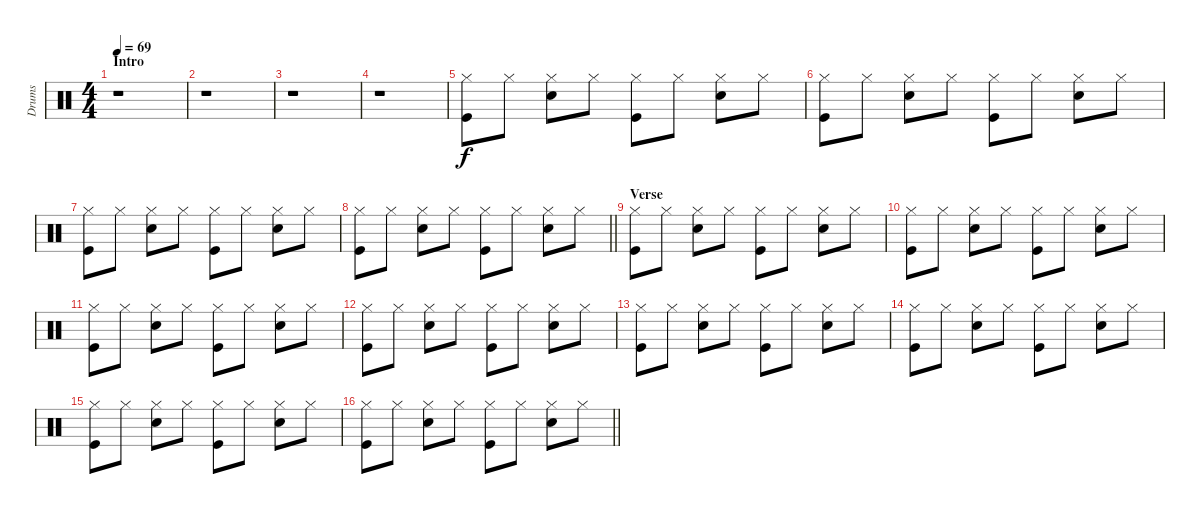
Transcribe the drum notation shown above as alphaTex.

\track ("Drums" "Drums") {instrument percussion}
\staff {score}
\articulation defaults
\ts (4 4)
\section ("" "Intro")
\tempo 69
\clef neutral
\ks c
r.1{dy f} |
r.1 |
r.1 |
r.1 |
("Hi-Hat (closed)" "Kick (hit)").8 "Hi-Hat (closed)".8 ("Hi-Hat (closed)" "Snare (hit) 2").8 "Hi-Hat (closed)".8 ("Hi-Hat (closed)" "Kick (hit)").8 "Hi-Hat (closed)".8 ("Hi-Hat (closed)" "Snare (hit) 2").8 "Hi-Hat (closed)".8 |
("Hi-Hat (closed)" "Kick (hit)").8 "Hi-Hat (closed)".8 ("Hi-Hat (closed)" "Snare (hit) 2").8 "Hi-Hat (closed)".8 ("Hi-Hat (closed)" "Kick (hit)").8 "Hi-Hat (closed)".8 ("Hi-Hat (closed)" "Snare (hit) 2").8 "Hi-Hat (closed)".8 |
("Hi-Hat (closed)" "Kick (hit)").8 "Hi-Hat (closed)".8 ("Hi-Hat (closed)" "Snare (hit) 2").8 "Hi-Hat (closed)".8 ("Hi-Hat (closed)" "Kick (hit)").8 "Hi-Hat (closed)".8 ("Hi-Hat (closed)" "Snare (hit) 2").8 "Hi-Hat (closed)".8 |
\barLineRight lightlight
("Hi-Hat (closed)" "Kick (hit)").8 "Hi-Hat (closed)".8 ("Hi-Hat (closed)" "Snare (hit) 2").8 "Hi-Hat (closed)".8 ("Hi-Hat (closed)" "Kick (hit)").8 "Hi-Hat (closed)".8 ("Hi-Hat (closed)" "Snare (hit) 2").8 "Hi-Hat (closed)".8 |
\section ("" "Verse")
("Hi-Hat (closed)" "Kick (hit)").8 "Hi-Hat (closed)".8 ("Hi-Hat (closed)" "Snare (hit) 2").8 "Hi-Hat (closed)".8 ("Hi-Hat (closed)" "Kick (hit)").8 "Hi-Hat (closed)".8 ("Hi-Hat (closed)" "Snare (hit) 2").8 "Hi-Hat (closed)".8 |
("Hi-Hat (closed)" "Kick (hit)").8 "Hi-Hat (closed)".8 ("Hi-Hat (closed)" "Snare (hit) 2").8 "Hi-Hat (closed)".8 ("Hi-Hat (closed)" "Kick (hit)").8 "Hi-Hat (closed)".8 ("Hi-Hat (closed)" "Snare (hit) 2").8 "Hi-Hat (closed)".8 |
("Hi-Hat (closed)" "Kick (hit)").8 "Hi-Hat (closed)".8 ("Hi-Hat (closed)" "Snare (hit) 2").8 "Hi-Hat (closed)".8 ("Hi-Hat (closed)" "Kick (hit)").8 "Hi-Hat (closed)".8 ("Hi-Hat (closed)" "Snare (hit) 2").8 "Hi-Hat (closed)".8 |
("Hi-Hat (closed)" "Kick (hit)").8 "Hi-Hat (closed)".8 ("Hi-Hat (closed)" "Snare (hit) 2").8 "Hi-Hat (closed)".8 ("Hi-Hat (closed)" "Kick (hit)").8 "Hi-Hat (closed)".8 ("Hi-Hat (closed)" "Snare (hit) 2").8 "Hi-Hat (closed)".8 |
("Hi-Hat (closed)" "Kick (hit)").8 "Hi-Hat (closed)".8 ("Hi-Hat (closed)" "Snare (hit) 2").8 "Hi-Hat (closed)".8 ("Hi-Hat (closed)" "Kick (hit)").8 "Hi-Hat (closed)".8 ("Hi-Hat (closed)" "Snare (hit) 2").8 "Hi-Hat (closed)".8 |
("Hi-Hat (closed)" "Kick (hit)").8 "Hi-Hat (closed)".8 ("Hi-Hat (closed)" "Snare (hit) 2").8 "Hi-Hat (closed)".8 ("Hi-Hat (closed)" "Kick (hit)").8 "Hi-Hat (closed)".8 ("Hi-Hat (closed)" "Snare (hit) 2").8 "Hi-Hat (closed)".8 |
("Hi-Hat (closed)" "Kick (hit)").8 "Hi-Hat (closed)".8 ("Hi-Hat (closed)" "Snare (hit) 2").8 "Hi-Hat (closed)".8 ("Hi-Hat (closed)" "Kick (hit)").8 "Hi-Hat (closed)".8 ("Hi-Hat (closed)" "Snare (hit) 2").8 "Hi-Hat (closed)".8 |
\barLineRight lightlight
("Hi-Hat (closed)" "Kick (hit)").8 "Hi-Hat (closed)".8 ("Hi-Hat (closed)" "Snare (hit) 2").8 "Hi-Hat (closed)".8 ("Hi-Hat (closed)" "Kick (hit)").8 "Hi-Hat (closed)".8 ("Hi-Hat (closed)" "Snare (hit) 2").8 "Hi-Hat (closed)".8
